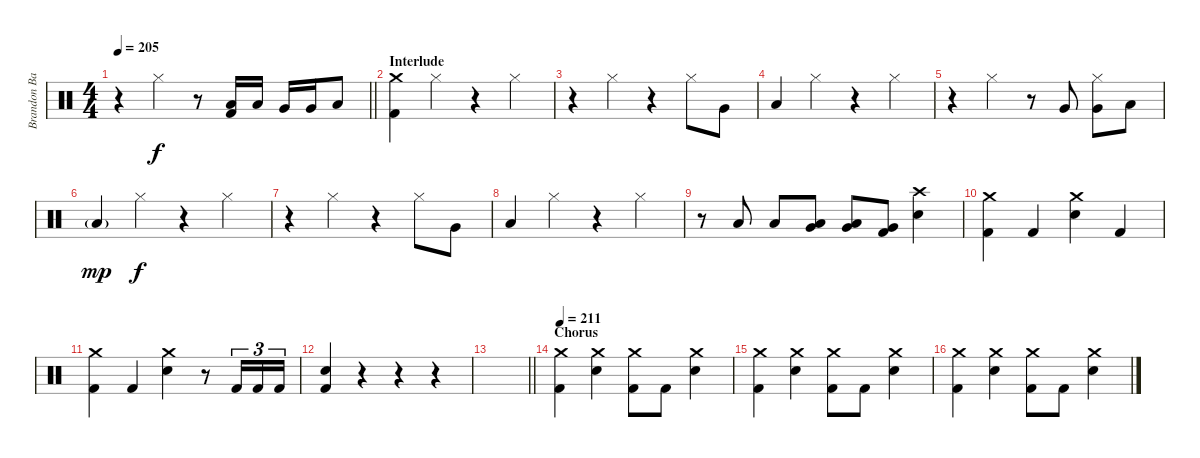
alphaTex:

\track ("Brandon Barnes - Drums" "Brandon Ba") {instrument percussion}
\staff {score}
\articulation defaults
\ts (4 4)
\tempo 205
\clef neutral
\barLineRight lightlight
\ks c
r.4{dy f} "Hi-Hat (closed)".4 r.8 ("Low Tom (hit)" "Kick (hit) 2").16 "Low Tom (hit)".16 "Very Low Tom (hit)".16 "Very Low Tom (hit)".16 "Low Floor Tom (hit)".8 |
\section ("" "Interlude")
("Crash medium (hit)" "Kick (hit) 2").4 "Hi-Hat (closed)".4 r.4 "Hi-Hat (closed)".4 |
r.4 "Hi-Hat (closed)".4 r.4 "Hi-Hat (closed)".8 "Very Low Tom (hit)".8 |
"Low Floor Tom (hit)".4 "Hi-Hat (closed)".4 r.4 "Hi-Hat (closed)".4 |
r.4 "Hi-Hat (closed)".4 r.8 "Very Low Tom (hit)".8 ("Hi-Hat (closed)" "Very Low Tom (hit)").8 "Low Floor Tom (hit)".8 |
"Low Floor Tom (hit)"{g}.4{dy mp} "Hi-Hat (closed)".4{dy f} r.4 "Hi-Hat (closed)".4 |
r.4 "Hi-Hat (closed)".4 r.4 "Hi-Hat (closed)".8 "Very Low Tom (hit)".8 |
"Low Floor Tom (hit)".4 "Hi-Hat (closed)".4 r.4 "Hi-Hat (closed)".4 |
r.8 "Low Floor Tom (hit)".8 "Low Floor Tom (hit)".8 ("Very Low Tom (hit)" "Low Floor Tom (hit)").8 ("Very Low Tom (hit)" "Low Floor Tom (hit)").8 ("Very Low Tom (hit)" "Kick (hit) 2").8 ("Crash high (hit)" "Electric Snare (hit)").4 |
("Crash medium (hit)" "Kick (hit) 2").4 "Kick (hit) 2".4 ("Crash medium (hit)" "Electric Snare (hit)").4 "Kick (hit) 2".4 |
("Crash medium (hit)" "Kick (hit) 2").4 "Kick (hit) 2".4 ("Crash medium (hit)" "Electric Snare (hit)").4 r.8 "Kick (hit) 2".16{tu (3 2)} "Kick (hit) 2".16{tu (3 2)} "Kick (hit) 2".16{tu (3 2)} |
("Electric Snare (hit)" "Kick (hit) 2").4 r.4 r.4 r.4 |
\barLineRight lightlight
|
\section ("" "Chorus")
\tempo 211
("Crash medium (hit)" "Kick (hit) 2").4 ("Crash medium (hit)" "Electric Snare (hit)").4 ("Crash medium (hit)" "Kick (hit) 2").8 "Kick (hit) 2".8 ("Crash medium (hit)" "Electric Snare (hit)").4 |
("Crash medium (hit)" "Kick (hit) 2").4 ("Crash medium (hit)" "Electric Snare (hit)").4 ("Crash medium (hit)" "Kick (hit) 2").8 "Kick (hit) 2".8 ("Crash medium (hit)" "Electric Snare (hit)").4 |
("Crash medium (hit)" "Kick (hit) 2").4 ("Crash medium (hit)" "Electric Snare (hit)").4 ("Crash medium (hit)" "Kick (hit) 2").8 "Kick (hit) 2".8 ("Crash medium (hit)" "Electric Snare (hit)").4
